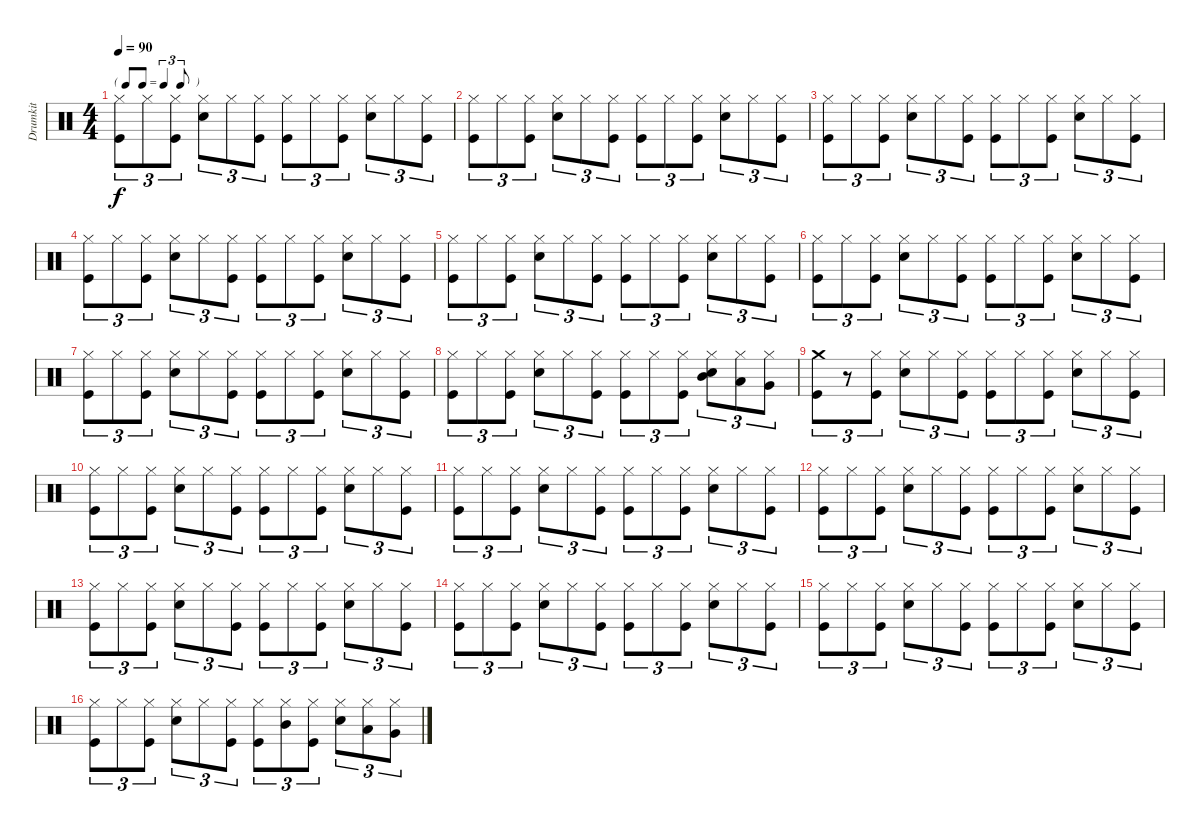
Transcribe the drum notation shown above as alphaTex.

\track ("Drumkit" "Drumkit") {instrument percussion}
\staff {score}
\articulation defaults
\ts (4 4)
\tf triplet8th
\tempo 90
\clef neutral
\ks c
("Hi-Hat (closed)" "Kick (hit)").8{tu (3 2) dy f} "Hi-Hat (closed)".8{tu (3 2)} ("Hi-Hat (closed)" "Kick (hit)").8{tu (3 2)} ("Hi-Hat (closed)" "Snare (hit) 2").8{tu (3 2)} "Hi-Hat (closed)".8{tu (3 2)} ("Hi-Hat (closed)" "Kick (hit)").8{tu (3 2)} ("Hi-Hat (closed)" "Kick (hit)").8{tu (3 2)} "Hi-Hat (closed)".8{tu (3 2)} ("Hi-Hat (closed)" "Kick (hit)").8{tu (3 2)} ("Hi-Hat (closed)" "Snare (hit) 2").8{tu (3 2)} "Hi-Hat (closed)".8{tu (3 2)} ("Hi-Hat (closed)" "Kick (hit)").8{tu (3 2)} |
("Hi-Hat (closed)" "Kick (hit)").8{tu (3 2)} "Hi-Hat (closed)".8{tu (3 2)} ("Hi-Hat (closed)" "Kick (hit)").8{tu (3 2)} ("Hi-Hat (closed)" "Snare (hit) 2").8{tu (3 2)} "Hi-Hat (closed)".8{tu (3 2)} ("Hi-Hat (closed)" "Kick (hit)").8{tu (3 2)} ("Hi-Hat (closed)" "Kick (hit)").8{tu (3 2)} "Hi-Hat (closed)".8{tu (3 2)} ("Hi-Hat (closed)" "Kick (hit)").8{tu (3 2)} ("Hi-Hat (closed)" "Snare (hit) 2").8{tu (3 2)} "Hi-Hat (closed)".8{tu (3 2)} ("Hi-Hat (closed)" "Kick (hit)").8{tu (3 2)} |
("Hi-Hat (closed)" "Kick (hit)").8{tu (3 2)} "Hi-Hat (closed)".8{tu (3 2)} ("Hi-Hat (closed)" "Kick (hit)").8{tu (3 2)} ("Hi-Hat (closed)" "Snare (hit) 2").8{tu (3 2)} "Hi-Hat (closed)".8{tu (3 2)} ("Hi-Hat (closed)" "Kick (hit)").8{tu (3 2)} ("Hi-Hat (closed)" "Kick (hit)").8{tu (3 2)} "Hi-Hat (closed)".8{tu (3 2)} ("Hi-Hat (closed)" "Kick (hit)").8{tu (3 2)} ("Hi-Hat (closed)" "Snare (hit) 2").8{tu (3 2)} "Hi-Hat (closed)".8{tu (3 2)} ("Hi-Hat (closed)" "Kick (hit)").8{tu (3 2)} |
("Hi-Hat (closed)" "Kick (hit)").8{tu (3 2)} "Hi-Hat (closed)".8{tu (3 2)} ("Hi-Hat (closed)" "Kick (hit)").8{tu (3 2)} ("Hi-Hat (closed)" "Snare (hit) 2").8{tu (3 2)} "Hi-Hat (closed)".8{tu (3 2)} ("Hi-Hat (closed)" "Kick (hit)").8{tu (3 2)} ("Hi-Hat (closed)" "Kick (hit)").8{tu (3 2)} "Hi-Hat (closed)".8{tu (3 2)} ("Hi-Hat (closed)" "Kick (hit)").8{tu (3 2)} ("Hi-Hat (closed)" "Snare (hit) 2").8{tu (3 2)} "Hi-Hat (closed)".8{tu (3 2)} ("Hi-Hat (closed)" "Kick (hit)").8{tu (3 2)} |
("Hi-Hat (closed)" "Kick (hit)").8{tu (3 2)} "Hi-Hat (closed)".8{tu (3 2)} ("Hi-Hat (closed)" "Kick (hit)").8{tu (3 2)} ("Hi-Hat (closed)" "Snare (hit) 2").8{tu (3 2)} "Hi-Hat (closed)".8{tu (3 2)} ("Hi-Hat (closed)" "Kick (hit)").8{tu (3 2)} ("Hi-Hat (closed)" "Kick (hit)").8{tu (3 2)} "Hi-Hat (closed)".8{tu (3 2)} ("Hi-Hat (closed)" "Kick (hit)").8{tu (3 2)} ("Hi-Hat (closed)" "Snare (hit) 2").8{tu (3 2)} "Hi-Hat (closed)".8{tu (3 2)} ("Hi-Hat (closed)" "Kick (hit)").8{tu (3 2)} |
("Hi-Hat (closed)" "Kick (hit)").8{tu (3 2)} "Hi-Hat (closed)".8{tu (3 2)} ("Hi-Hat (closed)" "Kick (hit)").8{tu (3 2)} ("Hi-Hat (closed)" "Snare (hit) 2").8{tu (3 2)} "Hi-Hat (closed)".8{tu (3 2)} ("Hi-Hat (closed)" "Kick (hit)").8{tu (3 2)} ("Hi-Hat (closed)" "Kick (hit)").8{tu (3 2)} "Hi-Hat (closed)".8{tu (3 2)} ("Hi-Hat (closed)" "Kick (hit)").8{tu (3 2)} ("Hi-Hat (closed)" "Snare (hit) 2").8{tu (3 2)} "Hi-Hat (closed)".8{tu (3 2)} ("Hi-Hat (closed)" "Kick (hit)").8{tu (3 2)} |
("Hi-Hat (closed)" "Kick (hit)").8{tu (3 2)} "Hi-Hat (closed)".8{tu (3 2)} ("Hi-Hat (closed)" "Kick (hit)").8{tu (3 2)} ("Hi-Hat (closed)" "Snare (hit) 2").8{tu (3 2)} "Hi-Hat (closed)".8{tu (3 2)} ("Hi-Hat (closed)" "Kick (hit)").8{tu (3 2)} ("Hi-Hat (closed)" "Kick (hit)").8{tu (3 2)} "Hi-Hat (closed)".8{tu (3 2)} ("Hi-Hat (closed)" "Kick (hit)").8{tu (3 2)} ("Hi-Hat (closed)" "Snare (hit) 2").8{tu (3 2)} "Hi-Hat (closed)".8{tu (3 2)} ("Hi-Hat (closed)" "Kick (hit)").8{tu (3 2)} |
("Hi-Hat (closed)" "Kick (hit)").8{tu (3 2)} "Hi-Hat (closed)".8{tu (3 2)} ("Hi-Hat (closed)" "Kick (hit)").8{tu (3 2)} ("Hi-Hat (closed)" "Snare (hit) 2").8{tu (3 2)} "Hi-Hat (closed)".8{tu (3 2)} ("Hi-Hat (closed)" "Kick (hit)").8{tu (3 2)} ("Hi-Hat (closed)" "Kick (hit)").8{tu (3 2)} "Hi-Hat (closed)".8{tu (3 2)} ("Hi-Hat (closed)" "Kick (hit)").8{tu (3 2)} ("Hi-Hat (closed)" "Mid Tom (hit)" "Snare (hit) 2").8{tu (3 2)} ("Hi-Hat (closed)" "Low Tom (hit)").8{tu (3 2)} ("Hi-Hat (closed)" "Very Low Tom (hit)").8{tu (3 2)} |
("Crash medium (hit)" "Kick (hit)").8{tu (3 2)} r.8{tu (3 2)} ("Hi-Hat (closed)" "Kick (hit)").8{tu (3 2)} ("Hi-Hat (closed)" "Snare (hit) 2").8{tu (3 2)} "Hi-Hat (closed)".8{tu (3 2)} ("Hi-Hat (closed)" "Kick (hit)").8{tu (3 2)} ("Hi-Hat (closed)" "Kick (hit)").8{tu (3 2)} "Hi-Hat (closed)".8{tu (3 2)} ("Hi-Hat (closed)" "Kick (hit)").8{tu (3 2)} ("Hi-Hat (closed)" "Snare (hit) 2").8{tu (3 2)} "Hi-Hat (closed)".8{tu (3 2)} ("Hi-Hat (closed)" "Kick (hit)").8{tu (3 2)} |
("Hi-Hat (closed)" "Kick (hit)").8{tu (3 2)} "Hi-Hat (closed)".8{tu (3 2)} ("Hi-Hat (closed)" "Kick (hit)").8{tu (3 2)} ("Hi-Hat (closed)" "Snare (hit) 2").8{tu (3 2)} "Hi-Hat (closed)".8{tu (3 2)} ("Hi-Hat (closed)" "Kick (hit)").8{tu (3 2)} ("Hi-Hat (closed)" "Kick (hit)").8{tu (3 2)} "Hi-Hat (closed)".8{tu (3 2)} ("Hi-Hat (closed)" "Kick (hit)").8{tu (3 2)} ("Hi-Hat (closed)" "Snare (hit) 2").8{tu (3 2)} "Hi-Hat (closed)".8{tu (3 2)} ("Hi-Hat (closed)" "Kick (hit)").8{tu (3 2)} |
("Hi-Hat (closed)" "Kick (hit)").8{tu (3 2)} "Hi-Hat (closed)".8{tu (3 2)} ("Hi-Hat (closed)" "Kick (hit)").8{tu (3 2)} ("Hi-Hat (closed)" "Snare (hit) 2").8{tu (3 2)} "Hi-Hat (closed)".8{tu (3 2)} ("Hi-Hat (closed)" "Kick (hit)").8{tu (3 2)} ("Hi-Hat (closed)" "Kick (hit)").8{tu (3 2)} "Hi-Hat (closed)".8{tu (3 2)} ("Hi-Hat (closed)" "Kick (hit)").8{tu (3 2)} ("Hi-Hat (closed)" "Snare (hit) 2").8{tu (3 2)} "Hi-Hat (closed)".8{tu (3 2)} ("Hi-Hat (closed)" "Kick (hit)").8{tu (3 2)} |
("Hi-Hat (closed)" "Kick (hit)").8{tu (3 2)} "Hi-Hat (closed)".8{tu (3 2)} ("Hi-Hat (closed)" "Kick (hit)").8{tu (3 2)} ("Hi-Hat (closed)" "Snare (hit) 2").8{tu (3 2)} "Hi-Hat (closed)".8{tu (3 2)} ("Hi-Hat (closed)" "Kick (hit)").8{tu (3 2)} ("Hi-Hat (closed)" "Kick (hit)").8{tu (3 2)} "Hi-Hat (closed)".8{tu (3 2)} ("Hi-Hat (closed)" "Kick (hit)").8{tu (3 2)} ("Hi-Hat (closed)" "Snare (hit) 2").8{tu (3 2)} "Hi-Hat (closed)".8{tu (3 2)} ("Hi-Hat (closed)" "Kick (hit)").8{tu (3 2)} |
("Hi-Hat (closed)" "Kick (hit)").8{tu (3 2)} "Hi-Hat (closed)".8{tu (3 2)} ("Hi-Hat (closed)" "Kick (hit)").8{tu (3 2)} ("Hi-Hat (closed)" "Snare (hit) 2").8{tu (3 2)} "Hi-Hat (closed)".8{tu (3 2)} ("Hi-Hat (closed)" "Kick (hit)").8{tu (3 2)} ("Hi-Hat (closed)" "Kick (hit)").8{tu (3 2)} "Hi-Hat (closed)".8{tu (3 2)} ("Hi-Hat (closed)" "Kick (hit)").8{tu (3 2)} ("Hi-Hat (closed)" "Snare (hit) 2").8{tu (3 2)} "Hi-Hat (closed)".8{tu (3 2)} ("Hi-Hat (closed)" "Kick (hit)").8{tu (3 2)} |
("Hi-Hat (closed)" "Kick (hit)").8{tu (3 2)} "Hi-Hat (closed)".8{tu (3 2)} ("Hi-Hat (closed)" "Kick (hit)").8{tu (3 2)} ("Hi-Hat (closed)" "Snare (hit) 2").8{tu (3 2)} "Hi-Hat (closed)".8{tu (3 2)} ("Hi-Hat (closed)" "Kick (hit)").8{tu (3 2)} ("Hi-Hat (closed)" "Kick (hit)").8{tu (3 2)} "Hi-Hat (closed)".8{tu (3 2)} ("Hi-Hat (closed)" "Kick (hit)").8{tu (3 2)} ("Hi-Hat (closed)" "Snare (hit) 2").8{tu (3 2)} "Hi-Hat (closed)".8{tu (3 2)} ("Hi-Hat (closed)" "Kick (hit)").8{tu (3 2)} |
("Hi-Hat (closed)" "Kick (hit)").8{tu (3 2)} "Hi-Hat (closed)".8{tu (3 2)} ("Hi-Hat (closed)" "Kick (hit)").8{tu (3 2)} ("Hi-Hat (closed)" "Snare (hit) 2").8{tu (3 2)} "Hi-Hat (closed)".8{tu (3 2)} ("Hi-Hat (closed)" "Kick (hit)").8{tu (3 2)} ("Hi-Hat (closed)" "Kick (hit)").8{tu (3 2)} "Hi-Hat (closed)".8{tu (3 2)} ("Hi-Hat (closed)" "Kick (hit)").8{tu (3 2)} ("Hi-Hat (closed)" "Snare (hit) 2").8{tu (3 2)} "Hi-Hat (closed)".8{tu (3 2)} ("Hi-Hat (closed)" "Kick (hit)").8{tu (3 2)} |
("Hi-Hat (closed)" "Kick (hit)").8{tu (3 2)} "Hi-Hat (closed)".8{tu (3 2)} ("Hi-Hat (closed)" "Kick (hit)").8{tu (3 2)} ("Hi-Hat (closed)" "Snare (hit) 2").8{tu (3 2)} "Hi-Hat (closed)".8{tu (3 2)} ("Hi-Hat (closed)" "Kick (hit)").8{tu (3 2)} ("Hi-Hat (closed)" "Kick (hit)").8{tu (3 2)} ("Hi-Hat (closed)" "Mid Tom (hit)").8{tu (3 2)} ("Hi-Hat (closed)" "Kick (hit)").8{tu (3 2)} ("Hi-Hat (closed)" "Snare (hit) 2").8{tu (3 2)} ("Hi-Hat (closed)" "Low Tom (hit)").8{tu (3 2)} ("Hi-Hat (closed)" "Very Low Tom (hit)").8{tu (3 2)}
